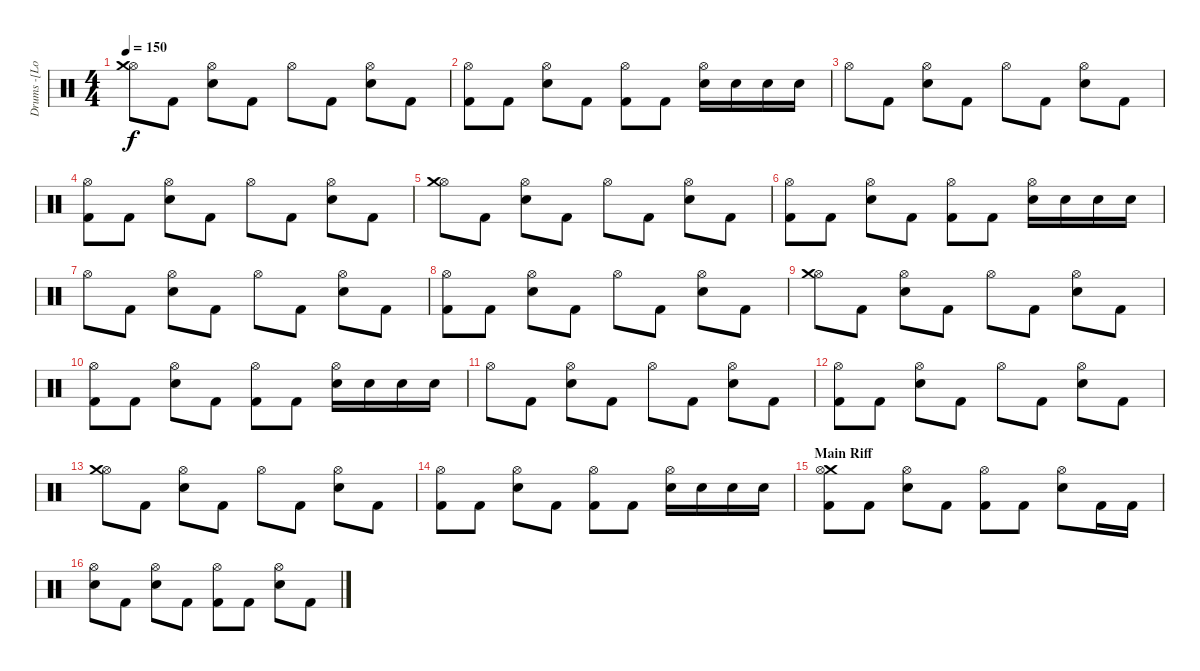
\track ("Drums -[Lorenz]-" "Drums -[Lo") {instrument percussion}
\staff {score}
\articulation defaults
\ts (4 4)
\tempo 150
\clef neutral
\ks c
("Hi-Hat (open)" "Crash medium (hit)").8{dy f} "Kick (hit) 2".8 ("Hi-Hat (open)" "Electric Snare (hit)").8 "Kick (hit) 2".8 "Hi-Hat (open)".8 "Kick (hit) 2".8 ("Hi-Hat (open)" "Electric Snare (hit)").8 "Kick (hit) 2".8 |
("Hi-Hat (open)" "Kick (hit) 2").8 "Kick (hit) 2".8 ("Hi-Hat (open)" "Electric Snare (hit)").8 "Kick (hit) 2".8 ("Hi-Hat (open)" "Kick (hit) 2").8 "Kick (hit) 2".8 ("Hi-Hat (open)" "Electric Snare (hit)").16 "Electric Snare (hit)".16 "Electric Snare (hit)".16 "Electric Snare (hit)".16 |
"Hi-Hat (open)".8 "Kick (hit) 2".8 ("Hi-Hat (open)" "Electric Snare (hit)").8 "Kick (hit) 2".8 "Hi-Hat (open)".8 "Kick (hit) 2".8 ("Hi-Hat (open)" "Electric Snare (hit)").8 "Kick (hit) 2".8 |
("Hi-Hat (open)" "Kick (hit) 2").8 "Kick (hit) 2".8 ("Hi-Hat (open)" "Electric Snare (hit)").8 "Kick (hit) 2".8 "Hi-Hat (open)".8 "Kick (hit) 2".8 ("Hi-Hat (open)" "Electric Snare (hit)").8 "Kick (hit) 2".8 |
("Hi-Hat (open)" "Crash medium (hit)").8 "Kick (hit) 2".8 ("Hi-Hat (open)" "Electric Snare (hit)").8 "Kick (hit) 2".8 "Hi-Hat (open)".8 "Kick (hit) 2".8 ("Hi-Hat (open)" "Electric Snare (hit)").8 "Kick (hit) 2".8 |
("Hi-Hat (open)" "Kick (hit) 2").8 "Kick (hit) 2".8 ("Hi-Hat (open)" "Electric Snare (hit)").8 "Kick (hit) 2".8 ("Hi-Hat (open)" "Kick (hit) 2").8 "Kick (hit) 2".8 ("Hi-Hat (open)" "Electric Snare (hit)").16 "Electric Snare (hit)".16 "Electric Snare (hit)".16 "Electric Snare (hit)".16 |
"Hi-Hat (open)".8 "Kick (hit) 2".8 ("Hi-Hat (open)" "Electric Snare (hit)").8 "Kick (hit) 2".8 "Hi-Hat (open)".8 "Kick (hit) 2".8 ("Hi-Hat (open)" "Electric Snare (hit)").8 "Kick (hit) 2".8 |
("Hi-Hat (open)" "Kick (hit) 2").8 "Kick (hit) 2".8 ("Hi-Hat (open)" "Electric Snare (hit)").8 "Kick (hit) 2".8 "Hi-Hat (open)".8 "Kick (hit) 2".8 ("Hi-Hat (open)" "Electric Snare (hit)").8 "Kick (hit) 2".8 |
("Hi-Hat (open)" "Crash medium (hit)").8 "Kick (hit) 2".8 ("Hi-Hat (open)" "Electric Snare (hit)").8 "Kick (hit) 2".8 "Hi-Hat (open)".8 "Kick (hit) 2".8 ("Hi-Hat (open)" "Electric Snare (hit)").8 "Kick (hit) 2".8 |
("Hi-Hat (open)" "Kick (hit) 2").8 "Kick (hit) 2".8 ("Hi-Hat (open)" "Electric Snare (hit)").8 "Kick (hit) 2".8 ("Hi-Hat (open)" "Kick (hit) 2").8 "Kick (hit) 2".8 ("Hi-Hat (open)" "Electric Snare (hit)").16 "Electric Snare (hit)".16 "Electric Snare (hit)".16 "Electric Snare (hit)".16 |
"Hi-Hat (open)".8 "Kick (hit) 2".8 ("Hi-Hat (open)" "Electric Snare (hit)").8 "Kick (hit) 2".8 "Hi-Hat (open)".8 "Kick (hit) 2".8 ("Hi-Hat (open)" "Electric Snare (hit)").8 "Kick (hit) 2".8 |
("Hi-Hat (open)" "Kick (hit) 2").8 "Kick (hit) 2".8 ("Hi-Hat (open)" "Electric Snare (hit)").8 "Kick (hit) 2".8 "Hi-Hat (open)".8 "Kick (hit) 2".8 ("Hi-Hat (open)" "Electric Snare (hit)").8 "Kick (hit) 2".8 |
("Hi-Hat (open)" "Crash medium (hit)").8 "Kick (hit) 2".8 ("Hi-Hat (open)" "Electric Snare (hit)").8 "Kick (hit) 2".8 "Hi-Hat (open)".8 "Kick (hit) 2".8 ("Hi-Hat (open)" "Electric Snare (hit)").8 "Kick (hit) 2".8 |
("Hi-Hat (open)" "Kick (hit) 2").8 "Kick (hit) 2".8 ("Hi-Hat (open)" "Electric Snare (hit)").8 "Kick (hit) 2".8 ("Hi-Hat (open)" "Kick (hit) 2").8 "Kick (hit) 2".8 ("Hi-Hat (open)" "Electric Snare (hit)").16 "Electric Snare (hit)".16 "Electric Snare (hit)".16 "Electric Snare (hit)".16 |
\section ("" "Main Riff")
("Crash medium (hit)" "Hi-Hat (open)" "Kick (hit) 2").8 "Kick (hit) 2".8 ("Hi-Hat (open)" "Electric Snare (hit)").8 "Kick (hit) 2".8 ("Hi-Hat (open)" "Kick (hit) 2").8 "Kick (hit) 2".8 ("Hi-Hat (open)" "Electric Snare (hit)").8 "Kick (hit) 2".16 "Kick (hit) 2".16 |
("Hi-Hat (open)" "Electric Snare (hit)").8 "Kick (hit) 2".8 ("Hi-Hat (open)" "Electric Snare (hit)").8 "Kick (hit) 2".8 ("Hi-Hat (open)" "Kick (hit) 2").8 "Kick (hit) 2".8 ("Hi-Hat (open)" "Electric Snare (hit)").8 "Kick (hit) 2".8
